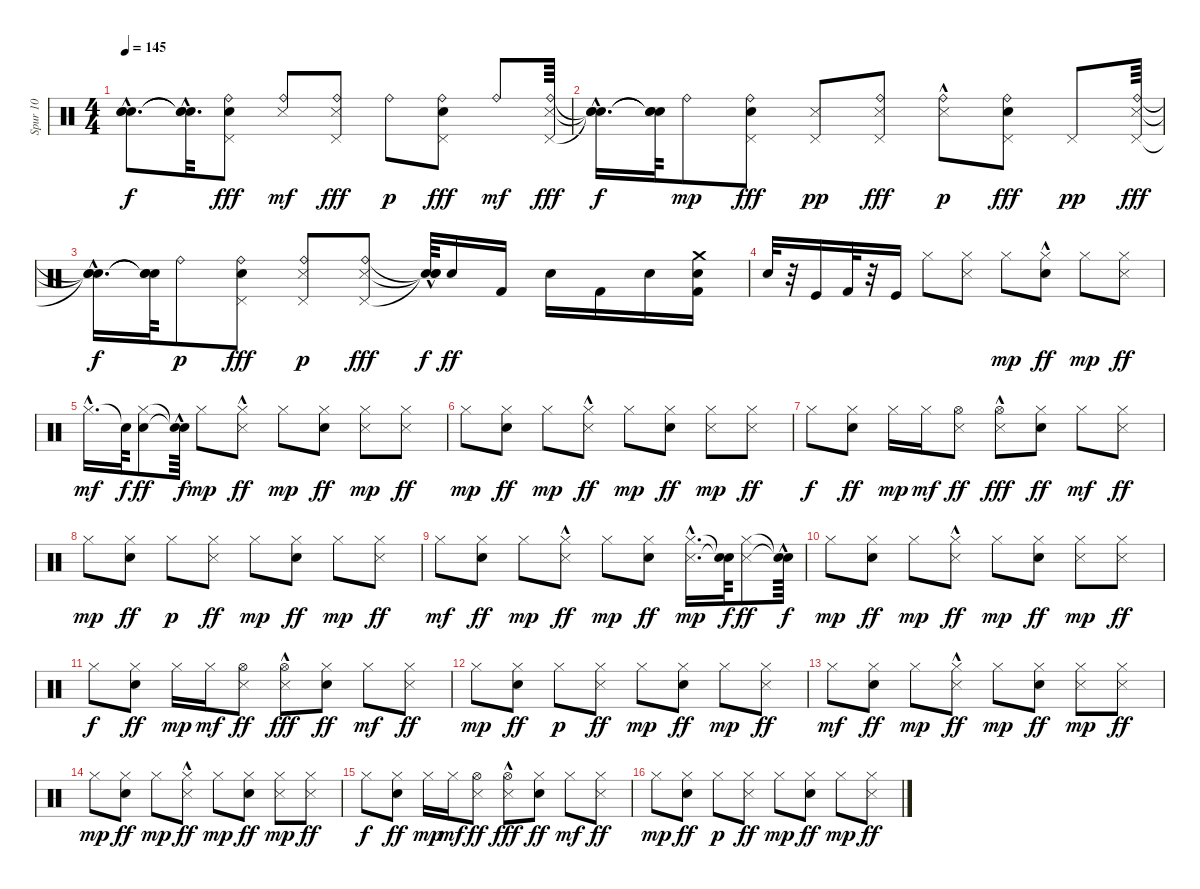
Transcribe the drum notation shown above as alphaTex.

\track ("Spur 10" "Spur 10") {instrument percussion}
\staff {score}
\articulation defaults
\ts (4 4)
\tempo 145
\clef neutral
\ks c
("Snare (hit)"{hac t} "Snare (hit)"{hac t} "Snare (hit)"{hac t}).8{d dy f} ("Snare (hit)"{t} "Snare (hit)"{hac t} "Snare (hit)"{hac t}).32{d} ("Electric Snare (hit)" "Pedal Hi-Hat (hit)" "Ride (bell)").8{dy fff} ("Metronome (hit)" "Ride (bell)").8{dy mf} ("Metronome (hit)" "Pedal Hi-Hat (hit)" "Ride (bell)").8{dy fff} "Ride (bell)".8{dy p} ("Electric Snare (hit)" "Pedal Hi-Hat (hit)" "Ride (bell)").8{dy fff} "Ride (bell)".8{dy mf} ("Metronome (hit)" "Pedal Hi-Hat (hit)" "Ride (bell)").64{dy fff} |
("Snare (hit)"{hac t} "Snare (hit)"{hac t} "Snare (hit)"{hac t}).16{d dy f} ("Snare (hit)"{t} "Snare (hit)"{t} "Snare (hit)"{t}).64 "Ride (bell)".8{dy mp} ("Electric Snare (hit)" "Pedal Hi-Hat (hit)" "Ride (bell)").8{dy fff} ("Metronome (hit)" "Pedal Hi-Hat (hit)").8{dy pp} ("Metronome (hit)" "Pedal Hi-Hat (hit)" "Ride (bell)").8{dy fff} ("Metronome (hit)"{hac} "Ride (bell)").8{dy p} ("Electric Snare (hit)" "Pedal Hi-Hat (hit)" "Ride (bell)").8{dy fff} "Pedal Hi-Hat (hit)".8{dy pp} ("Metronome (hit)" "Pedal Hi-Hat (hit)" "Ride (bell)").64{dy fff} |
("Snare (hit)"{hac t} "Snare (hit)"{hac t} "Snare (hit)"{hac t}).16{d dy f} ("Snare (hit)"{t} "Snare (hit)"{t} "Snare (hit)"{t}).64 "Ride (bell)".8{dy p balance 0} ("Electric Snare (hit)" "Pedal Hi-Hat (hit)" "Ride (bell)").8{dy fff balance 0} ("Metronome (hit)" "Pedal Hi-Hat (hit)" "Ride (bell)").8{dy p balance 2} ("Metronome (hit)" "Pedal Hi-Hat (hit)" "Ride (bell)").8{dy fff balance 2} ("Snare (hit)"{hac t} "Snare (hit)"{t} "Snare (hit)"{t}).64{dy f} "Electric Snare (hit)".16{dy ff balance 4} "Kick (hit) 2".16{balance 4} "Electric Snare (hit)".16{balance 5} "Kick (hit) 2".16{balance 5} "Electric Snare (hit)".16{balance 6} ("Kick (hit) 2" "Crash medium (hit)" "Electric Snare (hit)").16{balance 6} |
"Snare (hit) 2".32{balance 7} r.32 "Kick (hit)".16{balance 7} "Kick (hit) 2".32{balance 8} r.32 "Kick (hit)".16{balance 8} "Hi-Hat (closed)".8{balance 10} ("Metronome (hit)" "Hi-Hat (closed)").8{balance 11} "Hi-Hat (closed)".8{dy mp balance 13} ("Electric Snare (hit)"{hac} "Hi-Hat (closed)").8{dy ff balance 14} "Hi-Hat (closed)".8{dy mp balance 15} ("Metronome (hit)" "Hi-Hat (closed)").8{dy ff balance 8} |
"Hi-Hat (closed)"{hac}.16{d dy mf balance 8} "Snare (hit)"{t}.64{dy f} ("Electric Snare (hit)" "Hi-Hat (closed)").8{dy ff} ("Snare (hit)"{hac t} "Snare (hit)"{t}).64{dy f} "Hi-Hat (closed)".8{dy mp} ("Metronome (hit)"{hac} "Hi-Hat (closed)").8{dy ff} "Hi-Hat (closed)".8{dy mp} ("Electric Snare (hit)" "Hi-Hat (closed)").8{dy ff} ("Metronome (hit)" "Hi-Hat (closed)").8{dy mp} ("Metronome (hit)" "Hi-Hat (closed)").8{dy ff} |
"Hi-Hat (closed)".8{dy mp} ("Electric Snare (hit)" "Hi-Hat (closed)").8{dy ff} "Hi-Hat (closed)".8{dy mp} ("Metronome (hit)"{hac} "Hi-Hat (closed)").8{dy ff} "Hi-Hat (closed)".8{dy mp} ("Electric Snare (hit)" "Hi-Hat (closed)").8{dy ff} ("Metronome (hit)" "Hi-Hat (closed)").8{dy mp} ("Metronome (hit)" "Hi-Hat (closed)").8{dy ff} |
"Hi-Hat (closed)".8{dy f} ("Electric Snare (hit)" "Hi-Hat (closed)").8{dy ff} "Hi-Hat (closed)".16{dy mp} "Hi-Hat (closed)".16{dy mf} ("Metronome (hit)" "Hi-Hat (open)").8{dy ff} ("Metronome (hit)"{hac} "Hi-Hat (open)").8{dy fff} ("Electric Snare (hit)" "Hi-Hat (closed)").8{dy ff} "Hi-Hat (closed)".8{dy mf} ("Metronome (hit)" "Hi-Hat (closed)").8{dy ff} |
"Hi-Hat (closed)".8{dy mp} ("Electric Snare (hit)" "Hi-Hat (closed)").8{dy ff} "Hi-Hat (closed)".8{dy p} ("Metronome (hit)" "Hi-Hat (closed)").8{dy ff} "Hi-Hat (closed)".8{dy mp} ("Electric Snare (hit)" "Hi-Hat (closed)").8{dy ff} "Hi-Hat (closed)".8{dy mp} ("Metronome (hit)" "Hi-Hat (closed)").8{dy ff} |
"Hi-Hat (closed)".8{dy mf} ("Electric Snare (hit)" "Hi-Hat (closed)").8{dy ff} "Hi-Hat (closed)".8{dy mp} ("Metronome (hit)"{hac} "Hi-Hat (closed)").8{dy ff} "Hi-Hat (closed)".8{dy mp} ("Electric Snare (hit)" "Hi-Hat (closed)").8{dy ff} ("Metronome (hit)"{hac} "Hi-Hat (closed)"{hac}).16{d dy mp} ("Snare (hit)"{t} "Snare (hit)"{t}).64{dy f} ("Metronome (hit)" "Hi-Hat (closed)").8{dy ff} ("Snare (hit)"{hac t} "Snare (hit)"{t}).64{dy f} |
"Hi-Hat (closed)".8{dy mp} ("Electric Snare (hit)" "Hi-Hat (closed)").8{dy ff} "Hi-Hat (closed)".8{dy mp} ("Metronome (hit)"{hac} "Hi-Hat (closed)").8{dy ff} "Hi-Hat (closed)".8{dy mp} ("Electric Snare (hit)" "Hi-Hat (closed)").8{dy ff} ("Metronome (hit)" "Hi-Hat (closed)").8{dy mp} ("Metronome (hit)" "Hi-Hat (closed)").8{dy ff} |
"Hi-Hat (closed)".8{dy f} ("Electric Snare (hit)" "Hi-Hat (closed)").8{dy ff} "Hi-Hat (closed)".16{dy mp} "Hi-Hat (closed)".16{dy mf} ("Metronome (hit)" "Hi-Hat (open)").8{dy ff} ("Metronome (hit)"{hac} "Hi-Hat (open)").8{dy fff} ("Electric Snare (hit)" "Hi-Hat (closed)").8{dy ff} "Hi-Hat (closed)".8{dy mf} ("Metronome (hit)" "Hi-Hat (closed)").8{dy ff} |
"Hi-Hat (closed)".8{dy mp} ("Electric Snare (hit)" "Hi-Hat (closed)").8{dy ff} "Hi-Hat (closed)".8{dy p} ("Metronome (hit)" "Hi-Hat (closed)").8{dy ff} "Hi-Hat (closed)".8{dy mp} ("Electric Snare (hit)" "Hi-Hat (closed)").8{dy ff} "Hi-Hat (closed)".8{dy mp} ("Metronome (hit)" "Hi-Hat (closed)").8{dy ff} |
"Hi-Hat (closed)".8{dy mf} ("Electric Snare (hit)" "Hi-Hat (closed)").8{dy ff} "Hi-Hat (closed)".8{dy mp} ("Metronome (hit)"{hac} "Hi-Hat (closed)").8{dy ff} "Hi-Hat (closed)".8{dy mp} ("Electric Snare (hit)" "Hi-Hat (closed)").8{dy ff} ("Metronome (hit)" "Hi-Hat (closed)").8{dy mp} ("Metronome (hit)" "Hi-Hat (closed)").8{dy ff} |
"Hi-Hat (closed)".8{dy mp} ("Electric Snare (hit)" "Hi-Hat (closed)").8{dy ff} "Hi-Hat (closed)".8{dy mp} ("Metronome (hit)"{hac} "Hi-Hat (closed)").8{dy ff} "Hi-Hat (closed)".8{dy mp balance 0} ("Electric Snare (hit)" "Hi-Hat (closed)").8{dy ff} ("Metronome (hit)" "Hi-Hat (closed)").8{dy mp balance 0} ("Metronome (hit)" "Hi-Hat (closed)").8{dy ff} |
"Hi-Hat (closed)".8{dy f balance 0} ("Electric Snare (hit)" "Hi-Hat (closed)").8{dy ff} "Hi-Hat (closed)".16{dy mp} "Hi-Hat (closed)".16{dy mf} ("Metronome (hit)" "Hi-Hat (open)").8{dy ff} ("Metronome (hit)"{hac} "Hi-Hat (open)").8{dy fff} ("Electric Snare (hit)" "Hi-Hat (closed)").8{dy ff} "Hi-Hat (closed)".8{dy mf} ("Metronome (hit)" "Hi-Hat (closed)").8{dy ff} |
"Hi-Hat (closed)".8{dy mp} ("Electric Snare (hit)" "Hi-Hat (closed)").8{dy ff} "Hi-Hat (closed)".8{dy p} ("Metronome (hit)" "Hi-Hat (closed)").8{dy ff} "Hi-Hat (closed)".8{dy mp} ("Electric Snare (hit)" "Hi-Hat (closed)").8{dy ff} "Hi-Hat (closed)".8{dy mp} ("Metronome (hit)" "Hi-Hat (closed)").8{dy ff}
